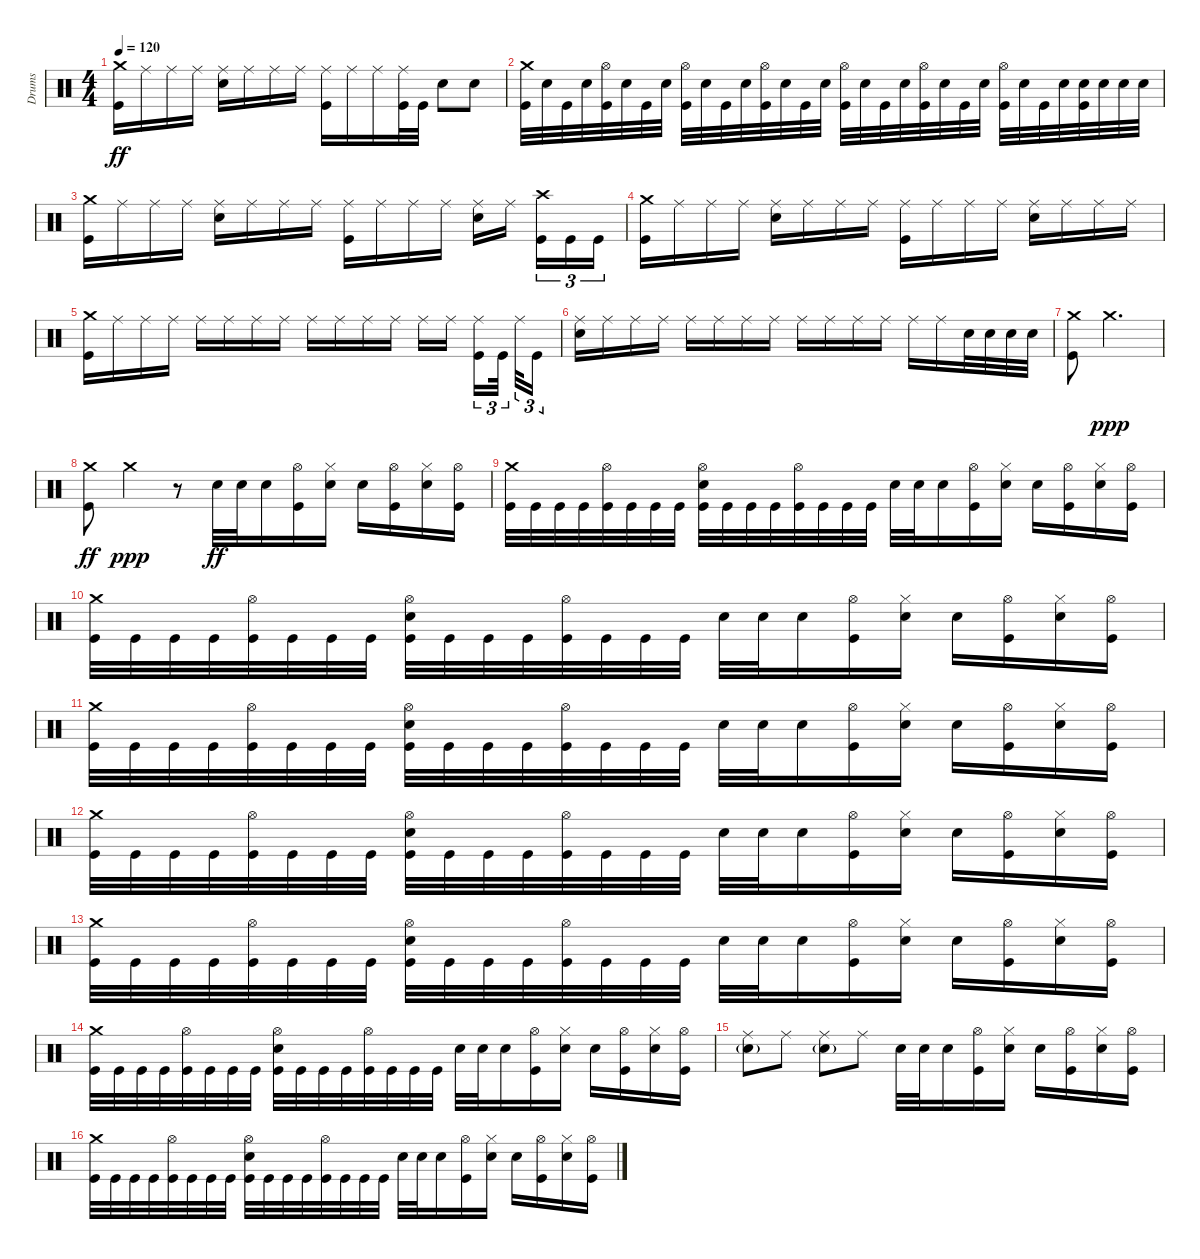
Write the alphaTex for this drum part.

\track ("Drums" "Drums") {instrument percussion}
\staff {score}
\articulation defaults
\ts (4 4)
\tempo 120
\clef neutral
\ks c
("Kick (hit)" "Crash medium (hit)").16{dy ff} "Ride (middle)".16 "Ride (middle)".16 "Ride (middle)".16 ("Ride (middle)" "Snare (hit) 2").16 "Ride (middle)".16 "Ride (middle)".16 "Ride (middle)".16 ("Ride (middle)" "Kick (hit)").16 "Ride (middle)".16 "Ride (middle)".16 ("Kick (hit)" "Ride (middle)").32 "Kick (hit)".32 "Snare (hit) 2".8 "Snare (hit) 2".8 |
("Kick (hit)" "Crash medium (hit)").32 "Snare (hit) 2".32 "Kick (hit)".32 "Snare (hit) 2".32 ("Kick (hit)" "Hi-Hat (open)").32 "Snare (hit) 2".32 "Kick (hit)".32 "Snare (hit) 2".32 ("Kick (hit)" "Hi-Hat (open)").32 "Snare (hit) 2".32 "Kick (hit)".32 "Snare (hit) 2".32 ("Kick (hit)" "Hi-Hat (open)").32 "Snare (hit) 2".32 "Kick (hit)".32 "Snare (hit) 2".32 ("Kick (hit)" "Hi-Hat (open)").32 "Snare (hit) 2".32 "Kick (hit)".32 "Snare (hit) 2".32 ("Kick (hit)" "Hi-Hat (open)").32 "Snare (hit) 2".32 "Kick (hit)".32 "Snare (hit) 2".32 ("Kick (hit)" "Hi-Hat (open)").32 "Snare (hit) 2".32 "Kick (hit)".32 "Snare (hit) 2".32 ("Snare (hit) 2" "Kick (hit)").32 "Snare (hit) 2".32 "Snare (hit) 2".32 "Snare (hit) 2".32 |
("Kick (hit)" "Crash medium (hit)").16 "Ride (middle)".16 "Ride (middle)".16 "Ride (middle)".16 ("Ride (middle)" "Snare (hit) 2").16 "Ride (middle)".16 "Ride (middle)".16 "Ride (middle)".16 ("Ride (middle)" "Kick (hit)").16 "Ride (middle)".16 "Ride (middle)".16 "Ride (middle)".16 ("Ride (middle)" "Snare (hit) 2").16 "Ride (middle)".16{beam splitsecondary} ("Kick (hit)" "Crash high (hit)").16{tu (3 2)} "Kick (hit)".16{tu (3 2)} "Kick (hit)".16{tu (3 2)} |
("Kick (hit)" "Crash medium (hit)").16 "Ride (middle)".16 "Ride (middle)".16 "Ride (middle)".16 ("Ride (middle)" "Snare (hit) 2").16 "Ride (middle)".16 "Ride (middle)".16 "Ride (middle)".16 ("Ride (middle)" "Kick (hit)").16 "Ride (middle)".16 "Ride (middle)".16 "Ride (middle)".16 ("Ride (middle)" "Snare (hit) 2").16 "Ride (middle)".16 "Ride (middle)".16 "Ride (middle)".16 |
("Kick (hit)" "Crash medium (hit)").16 "Ride (middle)".16 "Ride (middle)".16 "Ride (middle)".16 "Ride (middle)".16 "Ride (middle)".16 "Ride (middle)".16 "Ride (middle)".16 "Ride (middle)".16 "Ride (middle)".16 "Ride (middle)".16 "Ride (middle)".16 "Ride (middle)".16 "Ride (middle)".16{beam splitsecondary} ("Kick (hit)" "Ride (middle)").16{tu (3 2)} "Kick (hit)".32{tu (3 2) beam splitsecondary} "Ride (middle)".32{tu (3 2)} "Kick (hit)".16{tu (3 2)} |
("Ride (middle)" "Snare (hit) 2").16 "Ride (middle)".16 "Ride (middle)".16 "Ride (middle)".16 "Ride (middle)".16 "Ride (middle)".16 "Ride (middle)".16 "Ride (middle)".16 "Ride (middle)".16 "Ride (middle)".16 "Ride (middle)".16 "Ride (middle)".16 "Ride (middle)".16 "Ride (middle)".16 "Snare (hit) 2".32 "Snare (hit) 2".32 "Snare (hit) 2".32 "Snare (hit) 2".32 |
("Kick (hit)" "Crash medium (hit)").8 "Crash medium (hit)".2{d dy ppp} |
("Kick (hit)" "Crash medium (hit)").8{dy ff} "Crash medium (hit)".4{dy ppp} r.8 "Snare (hit) 2".32{dy ff} "Snare (hit) 2".32 "Snare (hit) 2".16 ("Kick (hit)" "Hi-Hat (open)").16 ("Snare (hit) 2" "Hi-Hat (closed)").16 "Snare (hit) 2".16 ("Kick (hit)" "Hi-Hat (open)").16 ("Snare (hit) 2" "Hi-Hat (closed)").16 ("Kick (hit)" "Hi-Hat (open)").16 |
("Kick (hit)" "Crash medium (hit)").32 "Kick (hit)".32 "Kick (hit)".32 "Kick (hit)".32 ("Kick (hit)" "Hi-Hat (open)").32 "Kick (hit)".32 "Kick (hit)".32 "Kick (hit)".32 ("Kick (hit)" "Hi-Hat (open)" "Snare (hit) 2").32 "Kick (hit)".32 "Kick (hit)".32 "Kick (hit)".32 ("Kick (hit)" "Hi-Hat (open)").32 "Kick (hit)".32 "Kick (hit)".32 "Kick (hit)".32 "Snare (hit) 2".32 "Snare (hit) 2".32 "Snare (hit) 2".16 ("Kick (hit)" "Hi-Hat (open)").16 ("Snare (hit) 2" "Hi-Hat (closed)").16 "Snare (hit) 2".16 ("Kick (hit)" "Hi-Hat (open)").16 ("Snare (hit) 2" "Hi-Hat (closed)").16 ("Kick (hit)" "Hi-Hat (open)").16 |
("Kick (hit)" "Crash medium (hit)").32 "Kick (hit)".32 "Kick (hit)".32 "Kick (hit)".32 ("Kick (hit)" "Hi-Hat (open)").32 "Kick (hit)".32 "Kick (hit)".32 "Kick (hit)".32 ("Kick (hit)" "Hi-Hat (open)" "Snare (hit) 2").32 "Kick (hit)".32 "Kick (hit)".32 "Kick (hit)".32 ("Kick (hit)" "Hi-Hat (open)").32 "Kick (hit)".32 "Kick (hit)".32 "Kick (hit)".32 "Snare (hit) 2".32 "Snare (hit) 2".32 "Snare (hit) 2".16 ("Kick (hit)" "Hi-Hat (open)").16 ("Snare (hit) 2" "Hi-Hat (closed)").16 "Snare (hit) 2".16 ("Kick (hit)" "Hi-Hat (open)").16 ("Snare (hit) 2" "Hi-Hat (closed)").16 ("Kick (hit)" "Hi-Hat (open)").16 |
("Kick (hit)" "Crash medium (hit)").32 "Kick (hit)".32 "Kick (hit)".32 "Kick (hit)".32 ("Kick (hit)" "Hi-Hat (open)").32 "Kick (hit)".32 "Kick (hit)".32 "Kick (hit)".32 ("Kick (hit)" "Hi-Hat (open)" "Snare (hit) 2").32 "Kick (hit)".32 "Kick (hit)".32 "Kick (hit)".32 ("Kick (hit)" "Hi-Hat (open)").32 "Kick (hit)".32 "Kick (hit)".32 "Kick (hit)".32 "Snare (hit) 2".32 "Snare (hit) 2".32 "Snare (hit) 2".16 ("Kick (hit)" "Hi-Hat (open)").16 ("Snare (hit) 2" "Hi-Hat (closed)").16 "Snare (hit) 2".16 ("Kick (hit)" "Hi-Hat (open)").16 ("Snare (hit) 2" "Hi-Hat (closed)").16 ("Kick (hit)" "Hi-Hat (open)").16 |
("Kick (hit)" "Crash medium (hit)").32 "Kick (hit)".32 "Kick (hit)".32 "Kick (hit)".32 ("Kick (hit)" "Hi-Hat (open)").32 "Kick (hit)".32 "Kick (hit)".32 "Kick (hit)".32 ("Kick (hit)" "Hi-Hat (open)" "Snare (hit) 2").32 "Kick (hit)".32 "Kick (hit)".32 "Kick (hit)".32 ("Kick (hit)" "Hi-Hat (open)").32 "Kick (hit)".32 "Kick (hit)".32 "Kick (hit)".32 "Snare (hit) 2".32 "Snare (hit) 2".32 "Snare (hit) 2".16 ("Kick (hit)" "Hi-Hat (open)").16 ("Snare (hit) 2" "Hi-Hat (closed)").16 "Snare (hit) 2".16 ("Kick (hit)" "Hi-Hat (open)").16 ("Snare (hit) 2" "Hi-Hat (closed)").16 ("Kick (hit)" "Hi-Hat (open)").16 |
("Kick (hit)" "Crash medium (hit)").32 "Kick (hit)".32 "Kick (hit)".32 "Kick (hit)".32 ("Kick (hit)" "Hi-Hat (open)").32 "Kick (hit)".32 "Kick (hit)".32 "Kick (hit)".32 ("Kick (hit)" "Hi-Hat (open)" "Snare (hit) 2").32 "Kick (hit)".32 "Kick (hit)".32 "Kick (hit)".32 ("Kick (hit)" "Hi-Hat (open)").32 "Kick (hit)".32 "Kick (hit)".32 "Kick (hit)".32 "Snare (hit) 2".32 "Snare (hit) 2".32 "Snare (hit) 2".16 ("Kick (hit)" "Hi-Hat (open)").16 ("Snare (hit) 2" "Hi-Hat (closed)").16 "Snare (hit) 2".16 ("Kick (hit)" "Hi-Hat (open)").16 ("Snare (hit) 2" "Hi-Hat (closed)").16 ("Kick (hit)" "Hi-Hat (open)").16 |
("Kick (hit)" "Crash medium (hit)").32 "Kick (hit)".32 "Kick (hit)".32 "Kick (hit)".32 ("Kick (hit)" "Hi-Hat (open)").32 "Kick (hit)".32 "Kick (hit)".32 "Kick (hit)".32 ("Kick (hit)" "Hi-Hat (open)" "Snare (hit) 2").32 "Kick (hit)".32 "Kick (hit)".32 "Kick (hit)".32 ("Kick (hit)" "Hi-Hat (open)").32 "Kick (hit)".32 "Kick (hit)".32 "Kick (hit)".32 "Snare (hit) 2".32 "Snare (hit) 2".32 "Snare (hit) 2".16 ("Kick (hit)" "Hi-Hat (open)").16 ("Snare (hit) 2" "Hi-Hat (closed)").16 "Snare (hit) 2".16 ("Kick (hit)" "Hi-Hat (open)").16 ("Snare (hit) 2" "Hi-Hat (closed)").16 ("Kick (hit)" "Hi-Hat (open)").16 |
("Snare (hit) 2"{g} "Ride (middle)").8 "Ride (middle)".8 ("Snare (hit) 2"{g} "Ride (middle)").8 "Ride (middle)".8 "Snare (hit) 2".32 "Snare (hit) 2".32 "Snare (hit) 2".16 ("Kick (hit)" "Hi-Hat (open)").16 ("Snare (hit) 2" "Hi-Hat (closed)").16 "Snare (hit) 2".16 ("Kick (hit)" "Hi-Hat (open)").16 ("Snare (hit) 2" "Hi-Hat (closed)").16 ("Kick (hit)" "Hi-Hat (open)").16 |
("Kick (hit)" "Crash medium (hit)").32 "Kick (hit)".32 "Kick (hit)".32 "Kick (hit)".32 ("Kick (hit)" "Hi-Hat (open)").32 "Kick (hit)".32 "Kick (hit)".32 "Kick (hit)".32 ("Kick (hit)" "Hi-Hat (open)" "Snare (hit) 2").32 "Kick (hit)".32 "Kick (hit)".32 "Kick (hit)".32 ("Kick (hit)" "Hi-Hat (open)").32 "Kick (hit)".32 "Kick (hit)".32 "Kick (hit)".32 "Snare (hit) 2".32 "Snare (hit) 2".32 "Snare (hit) 2".16 ("Kick (hit)" "Hi-Hat (open)").16 ("Snare (hit) 2" "Hi-Hat (closed)").16 "Snare (hit) 2".16 ("Kick (hit)" "Hi-Hat (open)").16 ("Snare (hit) 2" "Hi-Hat (closed)").16 ("Kick (hit)" "Hi-Hat (open)").16
